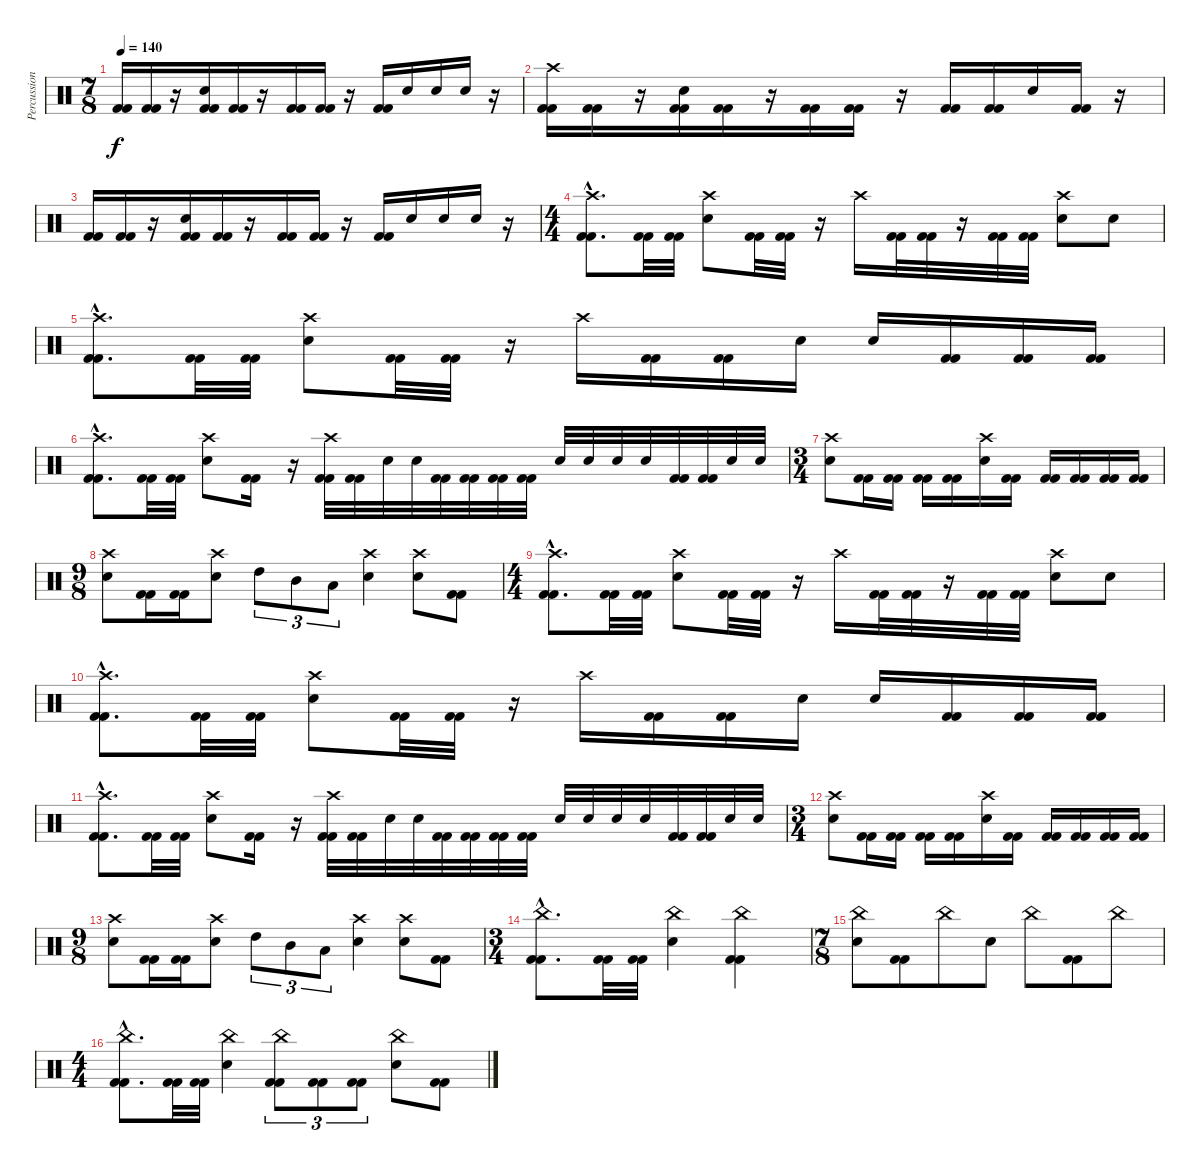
\track ("Percussions" "Percussion") {instrument percussion}
\staff {score}
\articulation defaults
\ts (7 8)
\tempo 140
\clef neutral
\ks c
("Kick (hit) 2" "Kick (hit) 2").16{dy f} ("Kick (hit) 2" "Kick (hit) 2").16 r.16 ("Kick (hit) 2" "Kick (hit) 2" "Electric Snare (hit)").16 ("Kick (hit) 2" "Kick (hit) 2").16 r.16 ("Kick (hit) 2" "Kick (hit) 2").16 ("Kick (hit) 2" "Kick (hit) 2").16 r.16 ("Kick (hit) 2" "Kick (hit) 2").16 "Electric Snare (hit)".16 "Electric Snare (hit)".16 "Electric Snare (hit)".16 r.16 |
("Kick (hit) 2" "Kick (hit) 2" "Crash high (hit)").16 ("Kick (hit) 2" "Kick (hit) 2").16 r.16 ("Kick (hit) 2" "Kick (hit) 2" "Electric Snare (hit)").16 ("Kick (hit) 2" "Kick (hit) 2").16 r.16 ("Kick (hit) 2" "Kick (hit) 2").16 ("Kick (hit) 2" "Kick (hit) 2").16 r.16 ("Kick (hit) 2" "Kick (hit) 2").16 ("Kick (hit) 2" "Kick (hit) 2").16 "Electric Snare (hit)".16 ("Kick (hit) 2" "Kick (hit) 2").16 r.16 |
("Kick (hit) 2" "Kick (hit) 2").16 ("Kick (hit) 2" "Kick (hit) 2").16 r.16 ("Kick (hit) 2" "Kick (hit) 2" "Electric Snare (hit)").16 ("Kick (hit) 2" "Kick (hit) 2").16 r.16 ("Kick (hit) 2" "Kick (hit) 2").16 ("Kick (hit) 2" "Kick (hit) 2").16 r.16 ("Kick (hit) 2" "Kick (hit) 2").16 "Electric Snare (hit)".16 "Electric Snare (hit)".16 "Electric Snare (hit)".16 r.16 |
\ts (4 4)
("Kick (hit) 2"{hac} "Kick (hit) 2"{hac} "Crash high (hit)"{hac}).8{d} ("Kick (hit) 2" "Kick (hit) 2").32 ("Kick (hit) 2" "Kick (hit) 2").32 ("Electric Snare (hit)" "Crash high (hit)").8 ("Kick (hit) 2" "Kick (hit) 2").32 ("Kick (hit) 2" "Kick (hit) 2").32 r.16 "Crash high (hit)".16 ("Kick (hit) 2" "Kick (hit) 2").32 ("Kick (hit) 2" "Kick (hit) 2").32 r.16 ("Kick (hit) 2" "Kick (hit) 2").32 ("Kick (hit) 2" "Kick (hit) 2").32 ("Electric Snare (hit)" "Crash high (hit)").8 "Electric Snare (hit)".8 |
("Kick (hit) 2"{hac} "Kick (hit) 2"{hac} "Crash high (hit)"{hac}).8{d} ("Kick (hit) 2" "Kick (hit) 2").32 ("Kick (hit) 2" "Kick (hit) 2").32 ("Electric Snare (hit)" "Crash high (hit)").8 ("Kick (hit) 2" "Kick (hit) 2").32 ("Kick (hit) 2" "Kick (hit) 2").32 r.16 "Crash high (hit)".16 ("Kick (hit) 2" "Kick (hit) 2").16 ("Kick (hit) 2" "Kick (hit) 2").16 "Electric Snare (hit)".16 "Electric Snare (hit)".16 ("Kick (hit) 2" "Kick (hit) 2").16 ("Kick (hit) 2" "Kick (hit) 2").16 ("Kick (hit) 2" "Kick (hit) 2").16 |
("Kick (hit) 2"{hac} "Kick (hit) 2"{hac} "Crash high (hit)"{hac}).8{d} ("Kick (hit) 2" "Kick (hit) 2").32 ("Kick (hit) 2" "Kick (hit) 2").32 ("Electric Snare (hit)" "Crash high (hit)").8 ("Kick (hit) 2" "Kick (hit) 2").16 r.16 ("Kick (hit) 2" "Kick (hit) 2" "Crash high (hit)").32 ("Kick (hit) 2" "Kick (hit) 2").32 "Electric Snare (hit)".32 "Electric Snare (hit)".32 ("Kick (hit) 2" "Kick (hit) 2").32 ("Kick (hit) 2" "Kick (hit) 2").32 ("Kick (hit) 2" "Kick (hit) 2").32 ("Kick (hit) 2" "Kick (hit) 2").32 "Electric Snare (hit)".32 "Electric Snare (hit)".32 "Electric Snare (hit)".32 "Electric Snare (hit)".32 ("Kick (hit) 2" "Kick (hit) 2").32 ("Kick (hit) 2" "Kick (hit) 2").32 "Electric Snare (hit)".32 "Electric Snare (hit)".32 |
\ts (3 4)
("Electric Snare (hit)" "Crash high (hit)").8 ("Kick (hit) 2" "Kick (hit) 2").16 ("Kick (hit) 2" "Kick (hit) 2").16 ("Kick (hit) 2" "Kick (hit) 2").16 ("Kick (hit) 2" "Kick (hit) 2").16 ("Electric Snare (hit)" "Crash high (hit)").16 ("Kick (hit) 2" "Kick (hit) 2").16 ("Kick (hit) 2" "Kick (hit) 2").16 ("Kick (hit) 2" "Kick (hit) 2").16 ("Kick (hit) 2" "Kick (hit) 2").16 ("Kick (hit) 2" "Kick (hit) 2").16 |
\ts (9 8)
("Electric Snare (hit)" "Crash high (hit)").8 ("Kick (hit) 2" "Kick (hit) 2").16 ("Kick (hit) 2" "Kick (hit) 2").16 ("Electric Snare (hit)" "Crash high (hit)").8 "High Tom (hit)".8{tu (3 2)} "Mid Tom (hit)".8{tu (3 2)} "Low Tom (hit)".8{tu (3 2)} ("Electric Snare (hit)" "Crash high (hit)").4 ("Electric Snare (hit)" "Crash high (hit)").8 ("Kick (hit) 2" "Kick (hit) 2").8 |
\ts (4 4)
("Kick (hit) 2"{hac} "Kick (hit) 2"{hac} "Crash high (hit)"{hac}).8{d} ("Kick (hit) 2" "Kick (hit) 2").32 ("Kick (hit) 2" "Kick (hit) 2").32 ("Electric Snare (hit)" "Crash high (hit)").8 ("Kick (hit) 2" "Kick (hit) 2").32 ("Kick (hit) 2" "Kick (hit) 2").32 r.16 "Crash high (hit)".16 ("Kick (hit) 2" "Kick (hit) 2").32 ("Kick (hit) 2" "Kick (hit) 2").32 r.16 ("Kick (hit) 2" "Kick (hit) 2").32 ("Kick (hit) 2" "Kick (hit) 2").32 ("Electric Snare (hit)" "Crash high (hit)").8 "Electric Snare (hit)".8 |
("Kick (hit) 2"{hac} "Kick (hit) 2"{hac} "Crash high (hit)"{hac}).8{d} ("Kick (hit) 2" "Kick (hit) 2").32 ("Kick (hit) 2" "Kick (hit) 2").32 ("Electric Snare (hit)" "Crash high (hit)").8 ("Kick (hit) 2" "Kick (hit) 2").32 ("Kick (hit) 2" "Kick (hit) 2").32 r.16 "Crash high (hit)".16 ("Kick (hit) 2" "Kick (hit) 2").16 ("Kick (hit) 2" "Kick (hit) 2").16 "Electric Snare (hit)".16 "Electric Snare (hit)".16 ("Kick (hit) 2" "Kick (hit) 2").16 ("Kick (hit) 2" "Kick (hit) 2").16 ("Kick (hit) 2" "Kick (hit) 2").16 |
("Kick (hit) 2"{hac} "Kick (hit) 2"{hac} "Crash high (hit)"{hac}).8{d} ("Kick (hit) 2" "Kick (hit) 2").32 ("Kick (hit) 2" "Kick (hit) 2").32 ("Electric Snare (hit)" "Crash high (hit)").8 ("Kick (hit) 2" "Kick (hit) 2").16 r.16 ("Kick (hit) 2" "Kick (hit) 2" "Crash high (hit)").32 ("Kick (hit) 2" "Kick (hit) 2").32 "Electric Snare (hit)".32 "Electric Snare (hit)".32 ("Kick (hit) 2" "Kick (hit) 2").32 ("Kick (hit) 2" "Kick (hit) 2").32 ("Kick (hit) 2" "Kick (hit) 2").32 ("Kick (hit) 2" "Kick (hit) 2").32 "Electric Snare (hit)".32 "Electric Snare (hit)".32 "Electric Snare (hit)".32 "Electric Snare (hit)".32 ("Kick (hit) 2" "Kick (hit) 2").32 ("Kick (hit) 2" "Kick (hit) 2").32 "Electric Snare (hit)".32 "Electric Snare (hit)".32 |
\ts (3 4)
("Electric Snare (hit)" "Crash high (hit)").8 ("Kick (hit) 2" "Kick (hit) 2").16 ("Kick (hit) 2" "Kick (hit) 2").16 ("Kick (hit) 2" "Kick (hit) 2").16 ("Kick (hit) 2" "Kick (hit) 2").16 ("Electric Snare (hit)" "Crash high (hit)").16 ("Kick (hit) 2" "Kick (hit) 2").16 ("Kick (hit) 2" "Kick (hit) 2").16 ("Kick (hit) 2" "Kick (hit) 2").16 ("Kick (hit) 2" "Kick (hit) 2").16 ("Kick (hit) 2" "Kick (hit) 2").16 |
\ts (9 8)
("Electric Snare (hit)" "Crash high (hit)").8 ("Kick (hit) 2" "Kick (hit) 2").16 ("Kick (hit) 2" "Kick (hit) 2").16 ("Electric Snare (hit)" "Crash high (hit)").8 "High Tom (hit)".8{tu (3 2)} "Mid Tom (hit)".8{tu (3 2)} "Low Tom (hit)".8{tu (3 2)} ("Electric Snare (hit)" "Crash high (hit)").4 ("Electric Snare (hit)" "Crash high (hit)").8 ("Kick (hit) 2" "Kick (hit) 2").8 |
\ts (3 4)
("Kick (hit) 2"{hac} "Kick (hit) 2"{hac} "China (hit)"{hac}).8{d} ("Kick (hit) 2" "Kick (hit) 2").32 ("Kick (hit) 2" "Kick (hit) 2").32 ("Electric Snare (hit)" "China (hit)").4 ("Kick (hit) 2" "Kick (hit) 2" "China (hit)").4 |
\ts (7 8)
("Electric Snare (hit)" "China (hit)").8 ("Kick (hit) 2" "Kick (hit) 2").8 "China (hit)".8 "Electric Snare (hit)".8 "China (hit)".8 ("Kick (hit) 2" "Kick (hit) 2").8 "China (hit)".8 |
\ts (4 4)
("Kick (hit) 2"{hac} "Kick (hit) 2"{hac} "China (hit)"{hac}).8{d} ("Kick (hit) 2" "Kick (hit) 2").32 ("Kick (hit) 2" "Kick (hit) 2").32 ("Electric Snare (hit)" "China (hit)").4 ("Kick (hit) 2" "Kick (hit) 2" "China (hit)").8{tu (3 2)} ("Kick (hit) 2" "Kick (hit) 2").8{tu (3 2)} ("Kick (hit) 2" "Kick (hit) 2").8{tu (3 2)} ("Electric Snare (hit)" "China (hit)").8 ("Kick (hit) 2" "Kick (hit) 2").8
